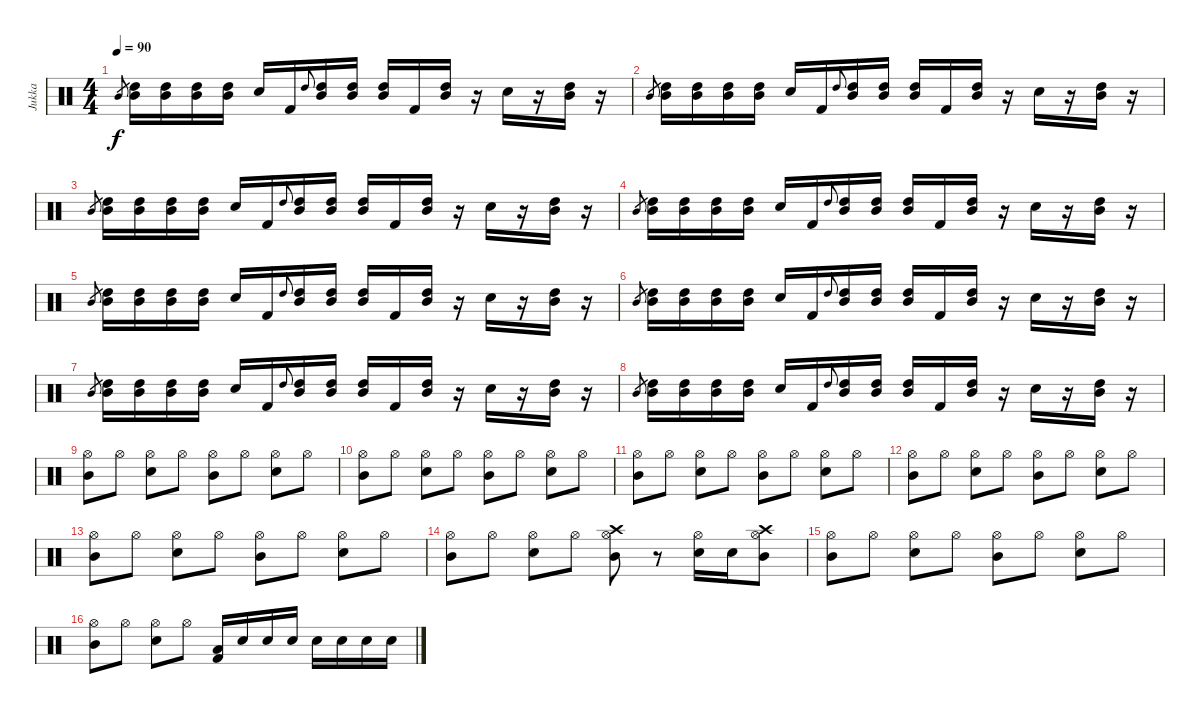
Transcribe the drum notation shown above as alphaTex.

\track ("Jukka" "Jukka") {instrument percussion}
\staff {score}
\articulation defaults
\ts (4 4)
\tempo 90
\clef neutral
\ks c "Mid Tom (hit)".8{gr dy f}
("High Tom (hit)" "Mid Tom (hit)").16 ("Mid Tom (hit)" "High Tom (hit)").16 ("High Tom (hit)" "Mid Tom (hit)").16 ("Mid Tom (hit)" "High Tom (hit)").16 "Snare (hit) 2".16 "Kick (hit) 2".16 "High Tom (hit)".8{gr onbeat} ("Mid Tom (hit)" "High Tom (hit)").16 ("Mid Tom (hit)" "High Tom (hit)").16 ("Mid Tom (hit)" "High Tom (hit)").16 "Kick (hit) 2".16 ("Mid Tom (hit)" "High Tom (hit)").16 r.16 "Snare (hit) 2".16 r.16 ("Mid Tom (hit)" "High Tom (hit)").16 r.16 |
"Mid Tom (hit)".8{gr} ("High Tom (hit)" "Mid Tom (hit)").16 ("Mid Tom (hit)" "High Tom (hit)").16 ("High Tom (hit)" "Mid Tom (hit)").16 ("Mid Tom (hit)" "High Tom (hit)").16 "Snare (hit) 2".16 "Kick (hit) 2".16 "High Tom (hit)".8{gr onbeat} ("Mid Tom (hit)" "High Tom (hit)").16 ("Mid Tom (hit)" "High Tom (hit)").16 ("Mid Tom (hit)" "High Tom (hit)").16 "Kick (hit) 2".16 ("Mid Tom (hit)" "High Tom (hit)").16 r.16 "Snare (hit) 2".16 r.16 ("Mid Tom (hit)" "High Tom (hit)").16 r.16 |
"Mid Tom (hit)".8{gr} ("High Tom (hit)" "Mid Tom (hit)").16 ("Mid Tom (hit)" "High Tom (hit)").16 ("High Tom (hit)" "Mid Tom (hit)").16 ("Mid Tom (hit)" "High Tom (hit)").16 "Snare (hit) 2".16 "Kick (hit) 2".16 "High Tom (hit)".8{gr onbeat} ("Mid Tom (hit)" "High Tom (hit)").16 ("Mid Tom (hit)" "High Tom (hit)").16 ("Mid Tom (hit)" "High Tom (hit)").16 "Kick (hit) 2".16 ("Mid Tom (hit)" "High Tom (hit)").16 r.16 "Snare (hit) 2".16 r.16 ("Mid Tom (hit)" "High Tom (hit)").16 r.16 |
"Mid Tom (hit)".8{gr} ("High Tom (hit)" "Mid Tom (hit)").16 ("Mid Tom (hit)" "High Tom (hit)").16 ("High Tom (hit)" "Mid Tom (hit)").16 ("Mid Tom (hit)" "High Tom (hit)").16 "Snare (hit) 2".16 "Kick (hit) 2".16 "High Tom (hit)".8{gr onbeat} ("Mid Tom (hit)" "High Tom (hit)").16 ("Mid Tom (hit)" "High Tom (hit)").16 ("Mid Tom (hit)" "High Tom (hit)").16 "Kick (hit) 2".16 ("Mid Tom (hit)" "High Tom (hit)").16 r.16 "Snare (hit) 2".16 r.16 ("Mid Tom (hit)" "High Tom (hit)").16 r.16 |
"Mid Tom (hit)".8{gr} ("High Tom (hit)" "Mid Tom (hit)").16 ("Mid Tom (hit)" "High Tom (hit)").16 ("High Tom (hit)" "Mid Tom (hit)").16 ("Mid Tom (hit)" "High Tom (hit)").16 "Snare (hit) 2".16 "Kick (hit) 2".16 "High Tom (hit)".8{gr onbeat} ("Mid Tom (hit)" "High Tom (hit)").16 ("Mid Tom (hit)" "High Tom (hit)").16 ("Mid Tom (hit)" "High Tom (hit)").16 "Kick (hit) 2".16 ("Mid Tom (hit)" "High Tom (hit)").16 r.16 "Snare (hit) 2".16 r.16 ("Mid Tom (hit)" "High Tom (hit)").16 r.16 |
"Mid Tom (hit)".8{gr} ("High Tom (hit)" "Mid Tom (hit)").16 ("Mid Tom (hit)" "High Tom (hit)").16 ("High Tom (hit)" "Mid Tom (hit)").16 ("Mid Tom (hit)" "High Tom (hit)").16 "Snare (hit) 2".16 "Kick (hit) 2".16 "High Tom (hit)".8{gr onbeat} ("Mid Tom (hit)" "High Tom (hit)").16 ("Mid Tom (hit)" "High Tom (hit)").16 ("Mid Tom (hit)" "High Tom (hit)").16 "Kick (hit) 2".16 ("Mid Tom (hit)" "High Tom (hit)").16 r.16 "Snare (hit) 2".16 r.16 ("Mid Tom (hit)" "High Tom (hit)").16 r.16 |
"Mid Tom (hit)".8{gr} ("High Tom (hit)" "Mid Tom (hit)").16 ("Mid Tom (hit)" "High Tom (hit)").16 ("High Tom (hit)" "Mid Tom (hit)").16 ("Mid Tom (hit)" "High Tom (hit)").16 "Snare (hit) 2".16 "Kick (hit) 2".16 "High Tom (hit)".8{gr onbeat} ("Mid Tom (hit)" "High Tom (hit)").16 ("Mid Tom (hit)" "High Tom (hit)").16 ("Mid Tom (hit)" "High Tom (hit)").16 "Kick (hit) 2".16 ("Mid Tom (hit)" "High Tom (hit)").16 r.16 "Snare (hit) 2".16 r.16 ("Mid Tom (hit)" "High Tom (hit)").16 r.16 |
"Mid Tom (hit)".8{gr} ("High Tom (hit)" "Mid Tom (hit)").16 ("Mid Tom (hit)" "High Tom (hit)").16 ("High Tom (hit)" "Mid Tom (hit)").16 ("Mid Tom (hit)" "High Tom (hit)").16 "Snare (hit) 2".16 "Kick (hit) 2".16 "High Tom (hit)".8{gr onbeat} ("Mid Tom (hit)" "High Tom (hit)").16 ("Mid Tom (hit)" "High Tom (hit)").16 ("Mid Tom (hit)" "High Tom (hit)").16 "Kick (hit) 2".16 ("Mid Tom (hit)" "High Tom (hit)").16 r.16 "Snare (hit) 2".16 r.16 ("Mid Tom (hit)" "High Tom (hit)").16 r.16 |
("Mid Tom (hit)" "Hi-Hat (open)").8 "Hi-Hat (open)".8 ("Hi-Hat (open)" "Snare (hit) 2").8 "Hi-Hat (open)".8 ("Hi-Hat (open)" "Mid Tom (hit)").8 "Hi-Hat (open)".8 ("Hi-Hat (open)" "Snare (hit) 2").8 "Hi-Hat (open)".8 |
("Mid Tom (hit)" "Hi-Hat (open)").8 "Hi-Hat (open)".8 ("Hi-Hat (open)" "Snare (hit) 2").8 "Hi-Hat (open)".8 ("Hi-Hat (open)" "Mid Tom (hit)").8 "Hi-Hat (open)".8 ("Hi-Hat (open)" "Snare (hit) 2").8 "Hi-Hat (open)".8 |
("Mid Tom (hit)" "Hi-Hat (open)").8 "Hi-Hat (open)".8 ("Hi-Hat (open)" "Snare (hit) 2").8 "Hi-Hat (open)".8 ("Hi-Hat (open)" "Mid Tom (hit)").8 "Hi-Hat (open)".8 ("Hi-Hat (open)" "Snare (hit) 2").8 "Hi-Hat (open)".8 |
("Mid Tom (hit)" "Hi-Hat (open)").8 "Hi-Hat (open)".8 ("Hi-Hat (open)" "Snare (hit) 2").8 "Hi-Hat (open)".8 ("Hi-Hat (open)" "Mid Tom (hit)").8 "Hi-Hat (open)".8 ("Hi-Hat (open)" "Snare (hit) 2").8 "Hi-Hat (open)".8 |
("Mid Tom (hit)" "Hi-Hat (open)").8 "Hi-Hat (open)".8 ("Hi-Hat (open)" "Snare (hit) 2").8 "Hi-Hat (open)".8 ("Hi-Hat (open)" "Mid Tom (hit)").8 "Hi-Hat (open)".8 ("Hi-Hat (open)" "Snare (hit) 2").8 "Hi-Hat (open)".8 |
("Mid Tom (hit)" "Hi-Hat (open)").8 "Hi-Hat (open)".8 ("Hi-Hat (open)" "Snare (hit) 2").8 "Hi-Hat (open)".8 ("Hi-Hat (open)" "Mid Tom (hit)" "Crash high (hit)").8 r.8 ("Hi-Hat (open)" "Snare (hit) 2").16 "Snare (hit) 2".16 ("Hi-Hat (open)" "Mid Tom (hit)" "Crash high (hit)").8 |
("Mid Tom (hit)" "Hi-Hat (open)").8 "Hi-Hat (open)".8 ("Hi-Hat (open)" "Snare (hit) 2").8 "Hi-Hat (open)".8 ("Hi-Hat (open)" "Mid Tom (hit)").8 "Hi-Hat (open)".8 ("Hi-Hat (open)" "Snare (hit) 2").8 "Hi-Hat (open)".8 |
("Mid Tom (hit)" "Hi-Hat (open)").8 "Hi-Hat (open)".8 ("Hi-Hat (open)" "Snare (hit) 2").8 "Hi-Hat (open)".8 ("Low Floor Tom (hit)" "Kick (hit) 2").16 "Snare (hit) 2".16 "Snare (hit) 2".16 "Snare (hit) 2".16 "Snare (hit) 2".16 "Snare (hit) 2".16 "Snare (hit) 2".16 "Snare (hit) 2".16
